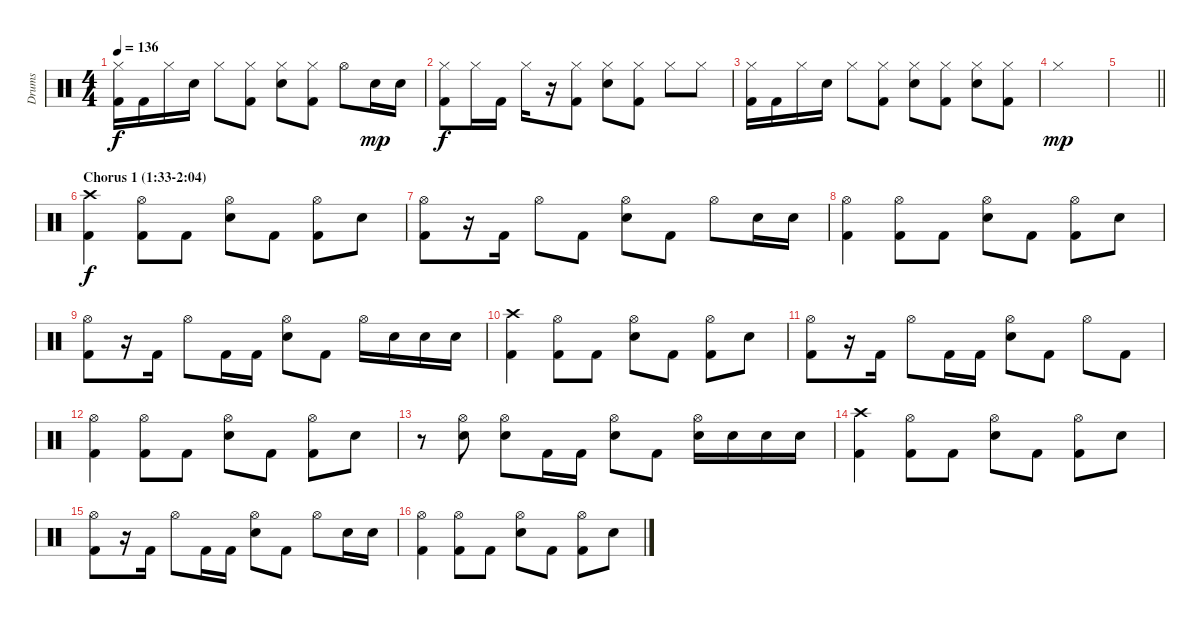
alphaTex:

\track ("Drums" "Drums") {instrument percussion}
\staff {score}
\articulation defaults
\ts (4 4)
\tempo 136
\clef neutral
\ks c
("Kick (hit) 2" "Hi-Hat (closed)").16{dy f} "Kick (hit) 2".16 "Hi-Hat (closed)".16 "Snare (hit) 2".16 "Hi-Hat (closed)".8 ("Kick (hit) 2" "Hi-Hat (closed)").8 ("Snare (hit) 2" "Hi-Hat (closed)").8 ("Kick (hit) 2" "Hi-Hat (closed)").8 "Hi-Hat (open)".8 "Snare (hit) 2".16{dy mp} "Snare (hit) 2".16 |
("Hi-Hat (closed)" "Kick (hit) 2").8{dy f} "Hi-Hat (closed)".16 "Kick (hit) 2".16 "Hi-Hat (closed)".16 r.16 ("Hi-Hat (closed)" "Kick (hit) 2").8 ("Hi-Hat (closed)" "Snare (hit) 2").8 ("Hi-Hat (closed)" "Kick (hit) 2").8 "Hi-Hat (closed)".8 "Hi-Hat (closed)".8 |
("Hi-Hat (closed)" "Kick (hit) 2").16 "Kick (hit) 2".16 "Hi-Hat (closed)".16 "Snare (hit) 2".16 "Hi-Hat (closed)".8 ("Hi-Hat (closed)" "Kick (hit) 2").8 ("Hi-Hat (closed)" "Snare (hit) 2").8 ("Hi-Hat (closed)" "Kick (hit) 2").8 ("Snare (hit) 2" "Hi-Hat (closed)").8 ("Kick (hit) 2" "Hi-Hat (closed)").8 |
"Hi-Hat (closed)".1{dy mp} |
\barLineRight lightlight
|
\section ("" "Chorus 1 (1:33-2:04)")
("Crash high (hit)" "Kick (hit) 2").4{dy f} ("Kick (hit) 2" "Hi-Hat (open)").8 "Kick (hit) 2".8 ("Snare (hit) 2" "Hi-Hat (open)").8 "Kick (hit) 2".8 ("Kick (hit) 2" "Hi-Hat (open)").8 "Snare (hit) 2".8 |
("Kick (hit) 2" "Hi-Hat (open)").8 r.16 "Kick (hit) 2".16 "Hi-Hat (open)".8 "Kick (hit) 2".8 ("Hi-Hat (open)" "Snare (hit) 2").8 "Kick (hit) 2".8 "Hi-Hat (open)".8 "Snare (hit) 2".16 "Snare (hit) 2".16 |
("Hi-Hat (open)" "Kick (hit) 2").4 ("Kick (hit) 2" "Hi-Hat (open)").8 "Kick (hit) 2".8 ("Snare (hit) 2" "Hi-Hat (open)").8 "Kick (hit) 2".8 ("Kick (hit) 2" "Hi-Hat (open)").8 "Snare (hit) 2".8 |
("Kick (hit) 2" "Hi-Hat (open)").8 r.16 "Kick (hit) 2".16 "Hi-Hat (open)".8 "Kick (hit) 2".16 "Kick (hit) 2".16 ("Hi-Hat (open)" "Snare (hit) 2").8 "Kick (hit) 2".8 "Hi-Hat (open)".16 "Snare (hit) 2".16 "Snare (hit) 2".16 "Snare (hit) 2".16 |
("Crash high (hit)" "Kick (hit) 2").4 ("Kick (hit) 2" "Hi-Hat (open)").8 "Kick (hit) 2".8 ("Snare (hit) 2" "Hi-Hat (open)").8 "Kick (hit) 2".8 ("Kick (hit) 2" "Hi-Hat (open)").8 "Snare (hit) 2".8 |
("Kick (hit) 2" "Hi-Hat (open)").8 r.16 "Kick (hit) 2".16 "Hi-Hat (open)".8 "Kick (hit) 2".16 "Kick (hit) 2".16 ("Hi-Hat (open)" "Snare (hit) 2").8 "Kick (hit) 2".8 "Hi-Hat (open)".8 "Kick (hit) 2".8 |
("Kick (hit) 2" "Hi-Hat (open)").4 ("Hi-Hat (open)" "Kick (hit) 2").8 "Kick (hit) 2".8 ("Hi-Hat (open)" "Snare (hit) 2").8 "Kick (hit) 2".8 ("Hi-Hat (open)" "Kick (hit) 2").8 "Snare (hit) 2".8 |
r.8 ("Snare (hit) 2" "Hi-Hat (open)").8 ("Hi-Hat (open)" "Snare (hit) 2").8 "Kick (hit) 2".16 "Kick (hit) 2".16 ("Hi-Hat (open)" "Snare (hit) 2").8 "Kick (hit) 2".8 ("Hi-Hat (open)" "Snare (hit) 2").16 "Snare (hit) 2".16 "Snare (hit) 2".16 "Snare (hit) 2".16 |
("Crash high (hit)" "Kick (hit) 2").4 ("Kick (hit) 2" "Hi-Hat (open)").8 "Kick (hit) 2".8 ("Snare (hit) 2" "Hi-Hat (open)").8 "Kick (hit) 2".8 ("Kick (hit) 2" "Hi-Hat (open)").8 "Snare (hit) 2".8 |
("Kick (hit) 2" "Hi-Hat (open)").8 r.16 "Kick (hit) 2".16 "Hi-Hat (open)".8 "Kick (hit) 2".16 "Kick (hit) 2".16 ("Hi-Hat (open)" "Snare (hit) 2").8 "Kick (hit) 2".8 "Hi-Hat (open)".8 "Snare (hit) 2".16 "Snare (hit) 2".16 |
("Hi-Hat (open)" "Kick (hit) 2").4 ("Kick (hit) 2" "Hi-Hat (open)").8 "Kick (hit) 2".8 ("Snare (hit) 2" "Hi-Hat (open)").8 "Kick (hit) 2".8 ("Kick (hit) 2" "Hi-Hat (open)").8 "Snare (hit) 2".8
